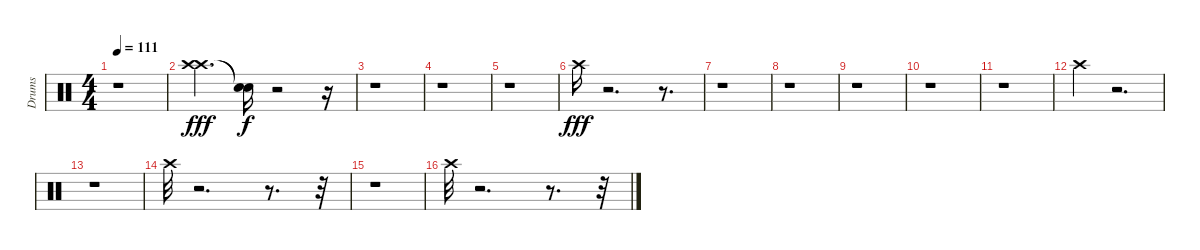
\track ("Drums" "Drums") {instrument percussion}
\staff {score}
\articulation defaults
\ts (4 4)
\tempo 111
\clef neutral
\ks c
r.1{dy fff} |
("Crash high (hit)" "Crash high (hit)").4{d} ("Snare (hit)"{t} "Snare (hit)"{t}).16{dy f} r.2 r.16 |
r.1 |
r.1 |
r.1 |
"Crash high (hit)".16{dy fff} r.2{d} r.8{d} |
r.1 |
r.1 |
r.1 |
r.1 |
r.1 |
"Crash high (hit)".4 r.2{d} |
r.1 |
"Crash high (hit)".32 r.2{d} r.8{d} r.32 |
r.1 |
"Crash high (hit)".32 r.2{d} r.8{d} r.32
